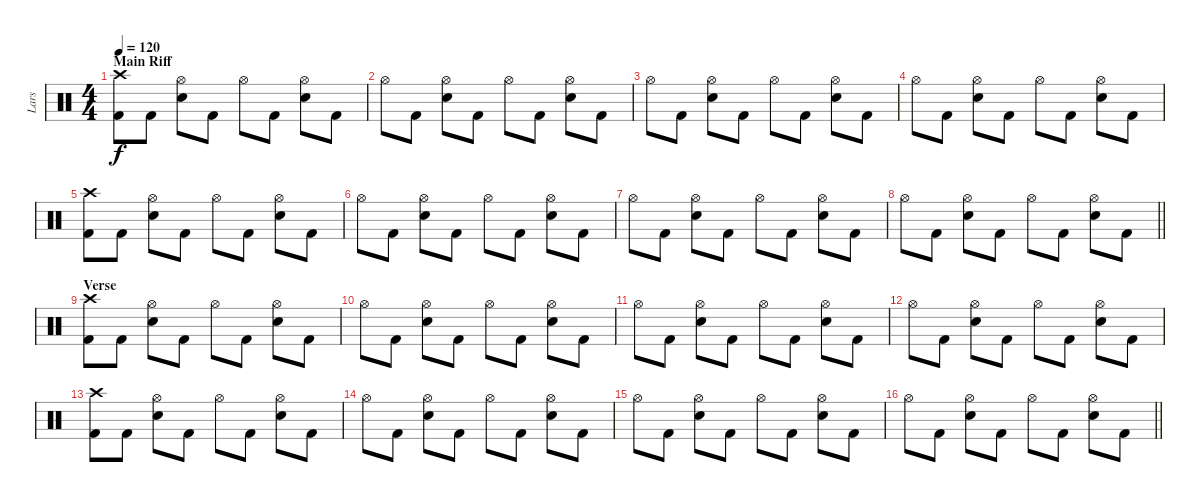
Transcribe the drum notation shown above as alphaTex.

\track ("Lars" "Lars") {instrument percussion}
\staff {score}
\articulation defaults
\ts (4 4)
\section ("" "Main Riff")
\tempo 120
\clef neutral
\ks c
("Kick (hit) 2" "Crash high (hit)").8{dy f} "Kick (hit) 2".8 ("Snare (hit) 2" "Hi-Hat (open)").8 "Kick (hit) 2".8 "Hi-Hat (open)".8 "Kick (hit) 2".8 ("Snare (hit) 2" "Hi-Hat (open)").8 "Kick (hit) 2".8 |
"Hi-Hat (open)".8 "Kick (hit) 2".8 ("Snare (hit) 2" "Hi-Hat (open)").8 "Kick (hit) 2".8 "Hi-Hat (open)".8 "Kick (hit) 2".8 ("Snare (hit) 2" "Hi-Hat (open)").8 "Kick (hit) 2".8 |
"Hi-Hat (open)".8 "Kick (hit) 2".8 ("Snare (hit) 2" "Hi-Hat (open)").8 "Kick (hit) 2".8 "Hi-Hat (open)".8 "Kick (hit) 2".8 ("Snare (hit) 2" "Hi-Hat (open)").8 "Kick (hit) 2".8 |
"Hi-Hat (open)".8 "Kick (hit) 2".8 ("Snare (hit) 2" "Hi-Hat (open)").8 "Kick (hit) 2".8 "Hi-Hat (open)".8 "Kick (hit) 2".8 ("Snare (hit) 2" "Hi-Hat (open)").8 "Kick (hit) 2".8 |
("Kick (hit) 2" "Crash high (hit)").8 "Kick (hit) 2".8 ("Snare (hit) 2" "Hi-Hat (open)").8 "Kick (hit) 2".8 "Hi-Hat (open)".8 "Kick (hit) 2".8 ("Snare (hit) 2" "Hi-Hat (open)").8 "Kick (hit) 2".8 |
"Hi-Hat (open)".8 "Kick (hit) 2".8 ("Snare (hit) 2" "Hi-Hat (open)").8 "Kick (hit) 2".8 "Hi-Hat (open)".8 "Kick (hit) 2".8 ("Snare (hit) 2" "Hi-Hat (open)").8 "Kick (hit) 2".8 |
"Hi-Hat (open)".8 "Kick (hit) 2".8 ("Snare (hit) 2" "Hi-Hat (open)").8 "Kick (hit) 2".8 "Hi-Hat (open)".8 "Kick (hit) 2".8 ("Snare (hit) 2" "Hi-Hat (open)").8 "Kick (hit) 2".8 |
\barLineRight lightlight "Hi-Hat (open)".8 "Kick (hit) 2".8
("Snare (hit) 2" "Hi-Hat (open)").8 "Kick (hit) 2".8 "Hi-Hat (open)".8 "Kick (hit) 2".8 ("Snare (hit) 2" "Hi-Hat (open)").8 "Kick (hit) 2".8 |
\section ("" "Verse")
("Kick (hit) 2" "Crash high (hit)").8 "Kick (hit) 2".8 ("Snare (hit) 2" "Hi-Hat (open)").8 "Kick (hit) 2".8 "Hi-Hat (open)".8 "Kick (hit) 2".8 ("Snare (hit) 2" "Hi-Hat (open)").8 "Kick (hit) 2".8 |
"Hi-Hat (open)".8 "Kick (hit) 2".8 ("Snare (hit) 2" "Hi-Hat (open)").8 "Kick (hit) 2".8 "Hi-Hat (open)".8 "Kick (hit) 2".8 ("Snare (hit) 2" "Hi-Hat (open)").8 "Kick (hit) 2".8 |
"Hi-Hat (open)".8 "Kick (hit) 2".8 ("Snare (hit) 2" "Hi-Hat (open)").8 "Kick (hit) 2".8 "Hi-Hat (open)".8 "Kick (hit) 2".8 ("Snare (hit) 2" "Hi-Hat (open)").8 "Kick (hit) 2".8 |
"Hi-Hat (open)".8 "Kick (hit) 2".8 ("Snare (hit) 2" "Hi-Hat (open)").8 "Kick (hit) 2".8 "Hi-Hat (open)".8 "Kick (hit) 2".8 ("Snare (hit) 2" "Hi-Hat (open)").8 "Kick (hit) 2".8 |
("Kick (hit) 2" "Crash high (hit)").8 "Kick (hit) 2".8 ("Snare (hit) 2" "Hi-Hat (open)").8 "Kick (hit) 2".8 "Hi-Hat (open)".8 "Kick (hit) 2".8 ("Snare (hit) 2" "Hi-Hat (open)").8 "Kick (hit) 2".8 |
"Hi-Hat (open)".8 "Kick (hit) 2".8 ("Snare (hit) 2" "Hi-Hat (open)").8 "Kick (hit) 2".8 "Hi-Hat (open)".8 "Kick (hit) 2".8 ("Snare (hit) 2" "Hi-Hat (open)").8 "Kick (hit) 2".8 |
"Hi-Hat (open)".8 "Kick (hit) 2".8 ("Snare (hit) 2" "Hi-Hat (open)").8 "Kick (hit) 2".8 "Hi-Hat (open)".8 "Kick (hit) 2".8 ("Snare (hit) 2" "Hi-Hat (open)").8 "Kick (hit) 2".8 |
\barLineRight lightlight "Hi-Hat (open)".8 "Kick (hit) 2".8
("Snare (hit) 2" "Hi-Hat (open)").8 "Kick (hit) 2".8 "Hi-Hat (open)".8 "Kick (hit) 2".8 ("Snare (hit) 2" "Hi-Hat (open)").8 "Kick (hit) 2".8
